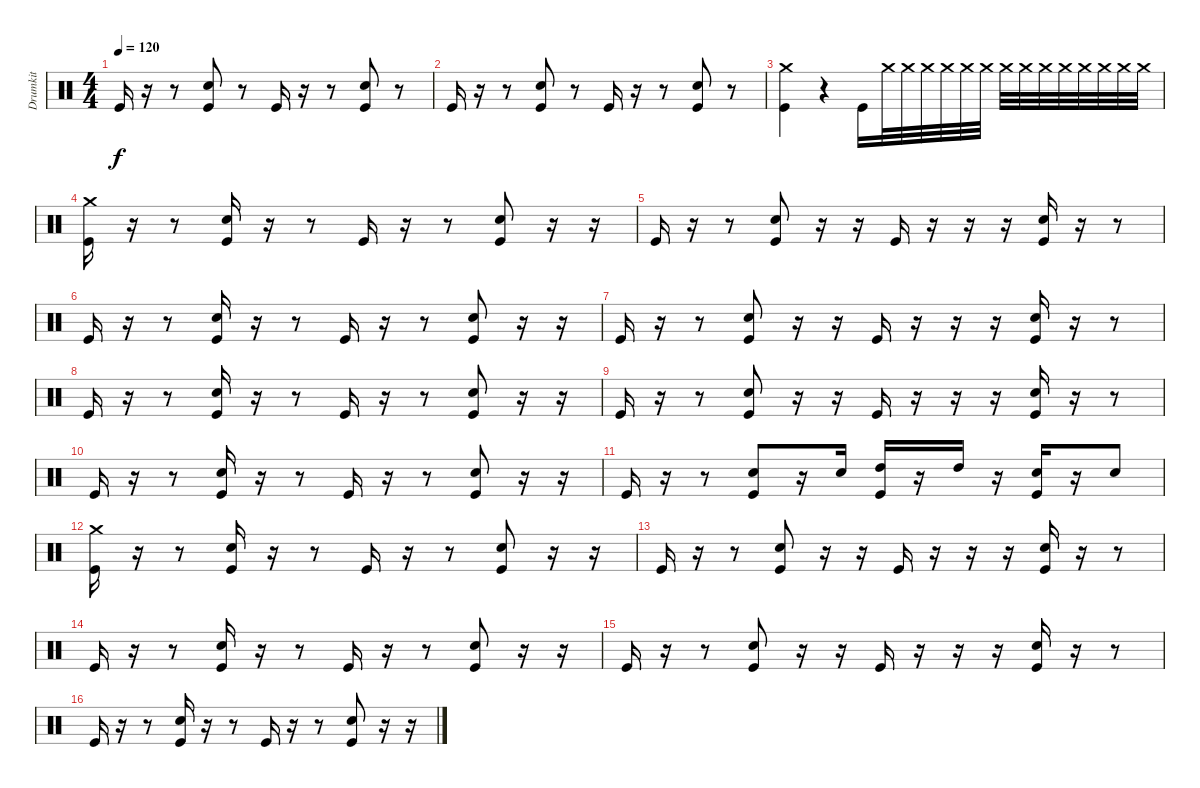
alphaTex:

\track ("Drumkit" "Drumkit") {instrument percussion}
\staff {score}
\articulation defaults
\ts (4 4)
\tempo 120
\clef neutral
\ks c "Kick (hit)".16{dy f}
r.16 r.8 ("Kick (hit)" "Snare (hit) 2").8 r.8 "Kick (hit)".16 r.16 r.8 ("Kick (hit)" "Snare (hit) 2").8 r.8 |
"Kick (hit)".16 r.16 r.8 ("Kick (hit)" "Snare (hit) 2").8 r.8 "Kick (hit)".16 r.16 r.8 ("Kick (hit)" "Snare (hit) 2").8 r.8 |
("Crash medium (hit)" "Kick (hit)").4 r.4 "Kick (hit)".16 "Crash medium (hit)".32 "Crash medium (hit)".32 "Crash medium (hit)".32 "Crash medium (hit)".32 "Crash medium (hit)".32 "Crash medium (hit)".32 "Crash medium (hit)".32 "Crash medium (hit)".32 "Crash medium (hit)".32 "Crash medium (hit)".32 "Crash medium (hit)".32 "Crash medium (hit)".32 "Crash medium (hit)".32 "Crash medium (hit)".32 |
("Crash medium (hit)" "Kick (hit)").16 r.16 r.8 ("Kick (hit)" "Snare (hit) 2").16 r.16 r.8 "Kick (hit)".16 r.16 r.8 ("Kick (hit)" "Snare (hit) 2").8 r.16 r.16 |
"Kick (hit)".16 r.16 r.8 ("Kick (hit)" "Snare (hit) 2").8 r.16 r.16 "Kick (hit)".16 r.16 r.16 r.16 ("Kick (hit)" "Snare (hit) 2").16 r.16 r.8 |
"Kick (hit)".16 r.16 r.8 ("Kick (hit)" "Snare (hit) 2").16 r.16 r.8 "Kick (hit)".16 r.16 r.8 ("Kick (hit)" "Snare (hit) 2").8 r.16 r.16 |
"Kick (hit)".16 r.16 r.8 ("Kick (hit)" "Snare (hit) 2").8 r.16 r.16 "Kick (hit)".16 r.16 r.16 r.16 ("Kick (hit)" "Snare (hit) 2").16 r.16 r.8 |
"Kick (hit)".16 r.16 r.8 ("Kick (hit)" "Snare (hit) 2").16 r.16 r.8 "Kick (hit)".16 r.16 r.8 ("Kick (hit)" "Snare (hit) 2").8 r.16 r.16 |
"Kick (hit)".16 r.16 r.8 ("Kick (hit)" "Snare (hit) 2").8 r.16 r.16 "Kick (hit)".16 r.16 r.16 r.16 ("Kick (hit)" "Snare (hit) 2").16 r.16 r.8 |
"Kick (hit)".16 r.16 r.8 ("Kick (hit)" "Snare (hit) 2").16 r.16 r.8 "Kick (hit)".16 r.16 r.8 ("Kick (hit)" "Snare (hit) 2").8 r.16 r.16 |
"Kick (hit)".16 r.16 r.8 ("Kick (hit)" "Snare (hit) 2").8 r.16 "Snare (hit) 2".16 ("High Tom (hit)" "Kick (hit)").16 r.16 "High Tom (hit)".16 r.16 ("Kick (hit)" "Snare (hit) 2").16 r.16 "Snare (hit) 2".8 |
("Crash medium (hit)" "Kick (hit)").16 r.16 r.8 ("Kick (hit)" "Snare (hit) 2").16 r.16 r.8 "Kick (hit)".16 r.16 r.8 ("Kick (hit)" "Snare (hit) 2").8 r.16 r.16 |
"Kick (hit)".16 r.16 r.8 ("Kick (hit)" "Snare (hit) 2").8 r.16 r.16 "Kick (hit)".16 r.16 r.16 r.16 ("Kick (hit)" "Snare (hit) 2").16 r.16 r.8 |
"Kick (hit)".16 r.16 r.8 ("Kick (hit)" "Snare (hit) 2").16 r.16 r.8 "Kick (hit)".16 r.16 r.8 ("Kick (hit)" "Snare (hit) 2").8 r.16 r.16 |
"Kick (hit)".16 r.16 r.8 ("Kick (hit)" "Snare (hit) 2").8 r.16 r.16 "Kick (hit)".16 r.16 r.16 r.16 ("Kick (hit)" "Snare (hit) 2").16 r.16 r.8 |
"Kick (hit)".16 r.16 r.8 ("Kick (hit)" "Snare (hit) 2").16 r.16 r.8 "Kick (hit)".16 r.16 r.8 ("Kick (hit)" "Snare (hit) 2").8 r.16 r.16
